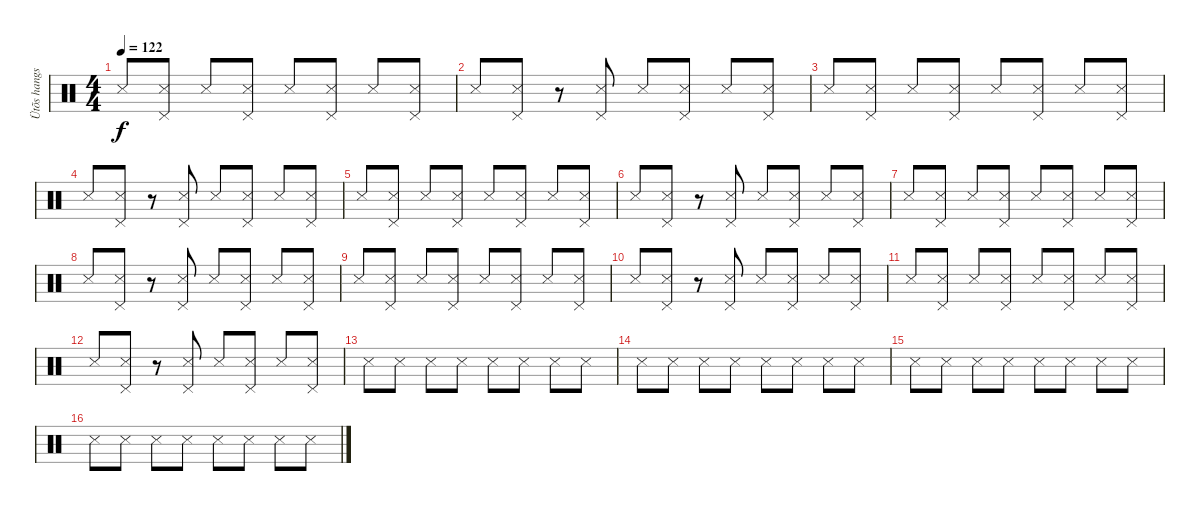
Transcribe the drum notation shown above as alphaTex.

\track ("Ütõs hangszer" "Ütõs hangs") {instrument percussion}
\staff {score}
\articulation defaults
\ts (4 4)
\tempo 122
\clef neutral
\ks c "Snare (side stick) 3".8{dy f}
("Snare (side stick) 3" "Pedal Hi-Hat (hit)").8 "Snare (side stick) 3".8 ("Snare (side stick) 3" "Pedal Hi-Hat (hit)").8 "Snare (side stick) 3".8 ("Snare (side stick) 3" "Pedal Hi-Hat (hit)").8 "Snare (side stick) 3".8 ("Snare (side stick) 3" "Pedal Hi-Hat (hit)").8 |
"Snare (side stick) 3".8 ("Snare (side stick) 3" "Pedal Hi-Hat (hit)").8 r.8 ("Snare (side stick) 3" "Pedal Hi-Hat (hit)").8 "Snare (side stick) 3".8 ("Snare (side stick) 3" "Pedal Hi-Hat (hit)").8 "Snare (side stick) 3".8 ("Snare (side stick) 3" "Pedal Hi-Hat (hit)").8 |
"Snare (side stick) 3".8 ("Snare (side stick) 3" "Pedal Hi-Hat (hit)").8 "Snare (side stick) 3".8 ("Snare (side stick) 3" "Pedal Hi-Hat (hit)").8 "Snare (side stick) 3".8 ("Snare (side stick) 3" "Pedal Hi-Hat (hit)").8 "Snare (side stick) 3".8 ("Snare (side stick) 3" "Pedal Hi-Hat (hit)").8 |
"Snare (side stick) 3".8 ("Snare (side stick) 3" "Pedal Hi-Hat (hit)").8 r.8 ("Snare (side stick) 3" "Pedal Hi-Hat (hit)").8 "Snare (side stick) 3".8 ("Snare (side stick) 3" "Pedal Hi-Hat (hit)").8 "Snare (side stick) 3".8 ("Snare (side stick) 3" "Pedal Hi-Hat (hit)").8 |
"Snare (side stick) 3".8 ("Snare (side stick) 3" "Pedal Hi-Hat (hit)").8 "Snare (side stick) 3".8 ("Snare (side stick) 3" "Pedal Hi-Hat (hit)").8 "Snare (side stick) 3".8 ("Snare (side stick) 3" "Pedal Hi-Hat (hit)").8 "Snare (side stick) 3".8 ("Snare (side stick) 3" "Pedal Hi-Hat (hit)").8 |
"Snare (side stick) 3".8 ("Snare (side stick) 3" "Pedal Hi-Hat (hit)").8 r.8 ("Snare (side stick) 3" "Pedal Hi-Hat (hit)").8 "Snare (side stick) 3".8 ("Snare (side stick) 3" "Pedal Hi-Hat (hit)").8 "Snare (side stick) 3".8 ("Snare (side stick) 3" "Pedal Hi-Hat (hit)").8 |
"Snare (side stick) 3".8 ("Snare (side stick) 3" "Pedal Hi-Hat (hit)").8 "Snare (side stick) 3".8 ("Snare (side stick) 3" "Pedal Hi-Hat (hit)").8 "Snare (side stick) 3".8 ("Snare (side stick) 3" "Pedal Hi-Hat (hit)").8 "Snare (side stick) 3".8 ("Snare (side stick) 3" "Pedal Hi-Hat (hit)").8 |
"Snare (side stick) 3".8 ("Snare (side stick) 3" "Pedal Hi-Hat (hit)").8 r.8 ("Snare (side stick) 3" "Pedal Hi-Hat (hit)").8 "Snare (side stick) 3".8 ("Snare (side stick) 3" "Pedal Hi-Hat (hit)").8 "Snare (side stick) 3".8 ("Snare (side stick) 3" "Pedal Hi-Hat (hit)").8 |
"Snare (side stick) 3".8 ("Snare (side stick) 3" "Pedal Hi-Hat (hit)").8 "Snare (side stick) 3".8 ("Snare (side stick) 3" "Pedal Hi-Hat (hit)").8 "Snare (side stick) 3".8 ("Snare (side stick) 3" "Pedal Hi-Hat (hit)").8 "Snare (side stick) 3".8 ("Snare (side stick) 3" "Pedal Hi-Hat (hit)").8 |
"Snare (side stick) 3".8 ("Snare (side stick) 3" "Pedal Hi-Hat (hit)").8 r.8 ("Snare (side stick) 3" "Pedal Hi-Hat (hit)").8 "Snare (side stick) 3".8 ("Snare (side stick) 3" "Pedal Hi-Hat (hit)").8 "Snare (side stick) 3".8 ("Snare (side stick) 3" "Pedal Hi-Hat (hit)").8 |
"Snare (side stick) 3".8 ("Snare (side stick) 3" "Pedal Hi-Hat (hit)").8 "Snare (side stick) 3".8 ("Snare (side stick) 3" "Pedal Hi-Hat (hit)").8 "Snare (side stick) 3".8 ("Snare (side stick) 3" "Pedal Hi-Hat (hit)").8 "Snare (side stick) 3".8 ("Snare (side stick) 3" "Pedal Hi-Hat (hit)").8 |
"Snare (side stick) 3".8 ("Snare (side stick) 3" "Pedal Hi-Hat (hit)").8 r.8 ("Snare (side stick) 3" "Pedal Hi-Hat (hit)").8 "Snare (side stick) 3".8 ("Snare (side stick) 3" "Pedal Hi-Hat (hit)").8 "Snare (side stick) 3".8 ("Snare (side stick) 3" "Pedal Hi-Hat (hit)").8 |
"Snare (side stick) 3".8 "Snare (side stick) 3".8 "Snare (side stick) 3".8 "Snare (side stick) 3".8 "Snare (side stick) 3".8 "Snare (side stick) 3".8 "Snare (side stick) 3".8 "Snare (side stick) 3".8 |
"Snare (side stick) 3".8 "Snare (side stick) 3".8 "Snare (side stick) 3".8 "Snare (side stick) 3".8 "Snare (side stick) 3".8 "Snare (side stick) 3".8 "Snare (side stick) 3".8 "Snare (side stick) 3".8 |
"Snare (side stick) 3".8 "Snare (side stick) 3".8 "Snare (side stick) 3".8 "Snare (side stick) 3".8 "Snare (side stick) 3".8 "Snare (side stick) 3".8 "Snare (side stick) 3".8 "Snare (side stick) 3".8 |
"Snare (side stick) 3".8 "Snare (side stick) 3".8 "Snare (side stick) 3".8 "Snare (side stick) 3".8 "Snare (side stick) 3".8 "Snare (side stick) 3".8 "Snare (side stick) 3".8 "Snare (side stick) 3".8
